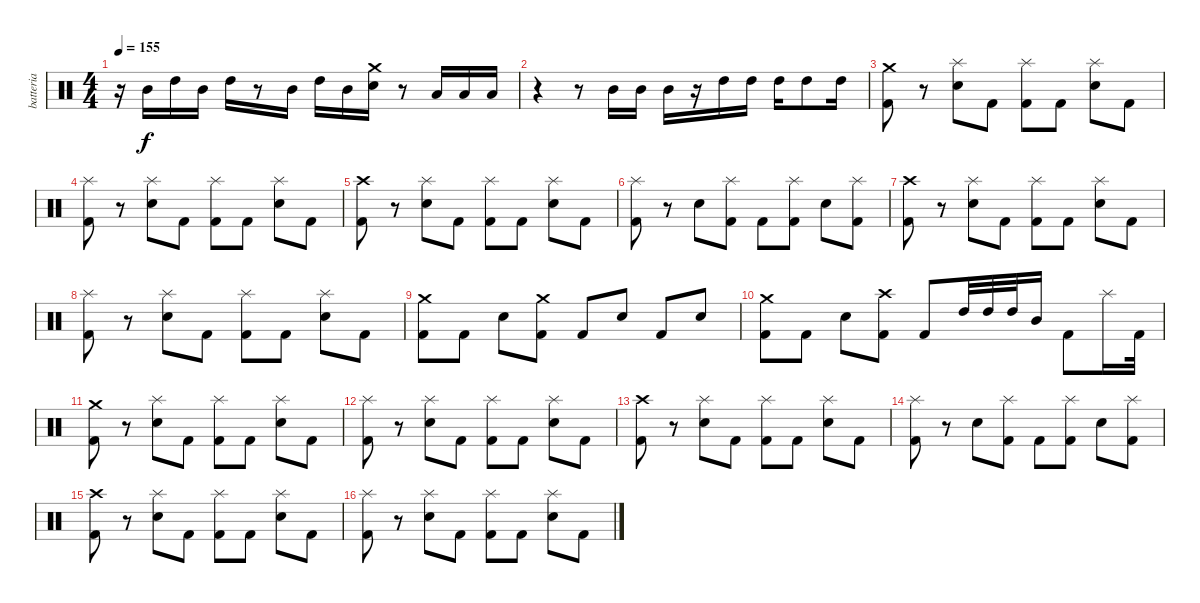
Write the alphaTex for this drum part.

\track ("batteria" "batteria") {instrument percussion}
\staff {score}
\articulation defaults
\ts (4 4)
\tempo 155
\clef neutral
\ks c
r.16{dy f} "Mid Tom (hit)".16 "High Tom (hit)".16 "Mid Tom (hit)".16 "High Tom (hit)".16 r.8 "Mid Tom (hit)".16 "High Tom (hit)".16 "Mid Tom (hit)".16 ("Crash medium (hit)" "Electric Snare (hit)").16 r.8 "Low Tom (hit)".16 "Low Tom (hit)".16 "Low Tom (hit)".16 |
r.4 r.8 "Mid Tom (hit)".16 "Mid Tom (hit)".16 "Mid Tom (hit)".16 r.16 "High Tom (hit)".16 "High Tom (hit)".16 "High Tom (hit)".16 "High Tom (hit)".8 "High Tom (hit)".16 |
("Crash medium (hit)" "Kick (hit) 2").8 r.8 ("Splash (hit)" "Electric Snare (hit)").8 "Kick (hit) 2".8 ("Splash (hit)" "Kick (hit) 2").8 "Kick (hit) 2".8 ("Splash (hit)" "Electric Snare (hit)").8 "Kick (hit) 2".8 |
("Splash (hit)" "Kick (hit) 2").8 r.8 ("Splash (hit)" "Electric Snare (hit)").8 "Kick (hit) 2".8 ("Splash (hit)" "Kick (hit) 2").8 "Kick (hit) 2".8 ("Splash (hit)" "Electric Snare (hit)").8 "Kick (hit) 2".8 |
("Crash high (hit)" "Kick (hit) 2").8 r.8 ("Splash (hit)" "Electric Snare (hit)").8 "Kick (hit) 2".8 ("Splash (hit)" "Kick (hit) 2").8 "Kick (hit) 2".8 ("Splash (hit)" "Electric Snare (hit)").8 "Kick (hit) 2".8 |
("Splash (hit)" "Kick (hit) 2").8 r.8 "Electric Snare (hit)".8 ("Splash (hit)" "Kick (hit) 2").8 "Kick (hit) 2".8 ("Splash (hit)" "Kick (hit) 2").8 "Electric Snare (hit)".8 ("Splash (hit)" "Kick (hit) 2").8 |
("Crash high (hit)" "Kick (hit) 2").8 r.8 ("Splash (hit)" "Electric Snare (hit)").8 "Kick (hit) 2".8 ("Splash (hit)" "Kick (hit) 2").8 "Kick (hit) 2".8 ("Splash (hit)" "Electric Snare (hit)").8 "Kick (hit) 2".8 |
("Splash (hit)" "Kick (hit) 2").8 r.8 ("Splash (hit)" "Electric Snare (hit)").8 "Kick (hit) 2".8 ("Splash (hit)" "Kick (hit) 2").8 "Kick (hit) 2".8 ("Splash (hit)" "Electric Snare (hit)").8 "Kick (hit) 2".8 |
("Crash medium (hit)" "Kick (hit) 2").8 "Kick (hit) 2".8 "Electric Snare (hit)".8 ("Crash medium (hit)" "Kick (hit) 2").8 "Kick (hit) 2".8 "Electric Snare (hit)".8 "Kick (hit) 2".8 "Electric Snare (hit)".8 |
("Crash medium (hit)" "Kick (hit) 2").8 "Kick (hit) 2".8 "Electric Snare (hit)".8 ("Crash high (hit)" "Kick (hit) 2").8 "Kick (hit) 2".8 "High Tom (hit)".32 "High Tom (hit)".32 "High Tom (hit)".32 "Mid Tom (hit)".16 "Kick (hit) 2".8 "Splash (hit)".16 "Kick (hit) 2".32 |
("Crash medium (hit)" "Kick (hit) 2").8 r.8 ("Splash (hit)" "Electric Snare (hit)").8 "Kick (hit) 2".8 ("Splash (hit)" "Kick (hit) 2").8 "Kick (hit) 2".8 ("Splash (hit)" "Electric Snare (hit)").8 "Kick (hit) 2".8 |
("Splash (hit)" "Kick (hit) 2").8 r.8 ("Splash (hit)" "Electric Snare (hit)").8 "Kick (hit) 2".8 ("Splash (hit)" "Kick (hit) 2").8 "Kick (hit) 2".8 ("Splash (hit)" "Electric Snare (hit)").8 "Kick (hit) 2".8 |
("Crash high (hit)" "Kick (hit) 2").8 r.8 ("Splash (hit)" "Electric Snare (hit)").8 "Kick (hit) 2".8 ("Splash (hit)" "Kick (hit) 2").8 "Kick (hit) 2".8 ("Splash (hit)" "Electric Snare (hit)").8 "Kick (hit) 2".8 |
("Splash (hit)" "Kick (hit) 2").8 r.8 "Electric Snare (hit)".8 ("Splash (hit)" "Kick (hit) 2").8 "Kick (hit) 2".8 ("Splash (hit)" "Kick (hit) 2").8 "Electric Snare (hit)".8 ("Splash (hit)" "Kick (hit) 2").8 |
("Crash high (hit)" "Kick (hit) 2").8 r.8 ("Splash (hit)" "Electric Snare (hit)").8 "Kick (hit) 2".8 ("Splash (hit)" "Kick (hit) 2").8 "Kick (hit) 2".8 ("Splash (hit)" "Electric Snare (hit)").8 "Kick (hit) 2".8 |
("Splash (hit)" "Kick (hit) 2").8 r.8 ("Splash (hit)" "Electric Snare (hit)").8 "Kick (hit) 2".8 ("Splash (hit)" "Kick (hit) 2").8 "Kick (hit) 2".8 ("Splash (hit)" "Electric Snare (hit)").8 "Kick (hit) 2".8
